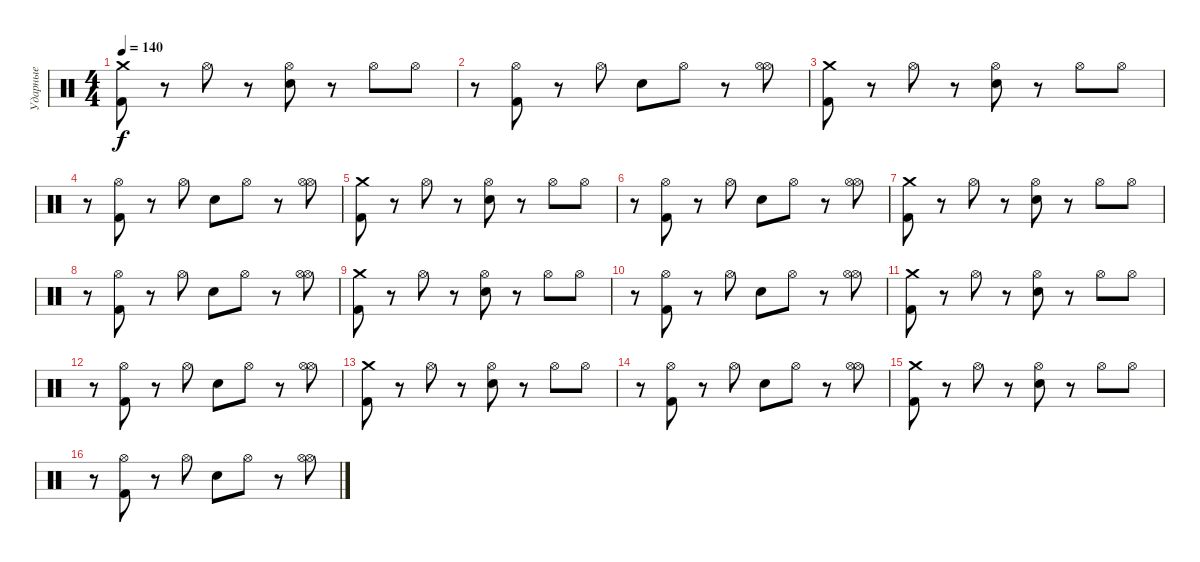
\track ("Ударные" "Ударные") {instrument percussion}
\staff {score}
\articulation defaults
\ts (4 4)
\tempo 140
\clef neutral
\ks c
("Crash medium (hit)" "Kick (hit) 2").8{dy f} r.8 "Hi-Hat (open)".8 r.8 ("Snare (hit) 2" "Hi-Hat (open)").8 r.8 "Hi-Hat (open)".8 "Hi-Hat (open)".8 |
r.8 ("Hi-Hat (open)" "Kick (hit) 2").8 r.8 "Hi-Hat (open)".8 "Snare (hit) 2".8 "Hi-Hat (open)".8 r.8 ("Hi-Hat (open)" "Hi-Hat (open)").8 |
("Crash medium (hit)" "Kick (hit) 2").8 r.8 "Hi-Hat (open)".8 r.8 ("Snare (hit) 2" "Hi-Hat (open)").8 r.8 "Hi-Hat (open)".8 "Hi-Hat (open)".8 |
r.8 ("Hi-Hat (open)" "Kick (hit) 2").8 r.8 "Hi-Hat (open)".8 "Snare (hit) 2".8 "Hi-Hat (open)".8 r.8 ("Hi-Hat (open)" "Hi-Hat (open)").8 |
("Crash medium (hit)" "Kick (hit) 2").8 r.8 "Hi-Hat (open)".8 r.8 ("Snare (hit) 2" "Hi-Hat (open)").8 r.8 "Hi-Hat (open)".8 "Hi-Hat (open)".8 |
r.8 ("Hi-Hat (open)" "Kick (hit) 2").8 r.8 "Hi-Hat (open)".8 "Snare (hit) 2".8 "Hi-Hat (open)".8 r.8 ("Hi-Hat (open)" "Hi-Hat (open)").8 |
("Crash medium (hit)" "Kick (hit) 2").8 r.8 "Hi-Hat (open)".8 r.8 ("Snare (hit) 2" "Hi-Hat (open)").8 r.8 "Hi-Hat (open)".8 "Hi-Hat (open)".8 |
r.8 ("Hi-Hat (open)" "Kick (hit) 2").8 r.8 "Hi-Hat (open)".8 "Snare (hit) 2".8 "Hi-Hat (open)".8 r.8 ("Hi-Hat (open)" "Hi-Hat (open)").8 |
("Crash medium (hit)" "Kick (hit) 2").8 r.8 "Hi-Hat (open)".8 r.8 ("Snare (hit) 2" "Hi-Hat (open)").8 r.8 "Hi-Hat (open)".8 "Hi-Hat (open)".8 |
r.8 ("Hi-Hat (open)" "Kick (hit) 2").8 r.8 "Hi-Hat (open)".8 "Snare (hit) 2".8 "Hi-Hat (open)".8 r.8 ("Hi-Hat (open)" "Hi-Hat (open)").8 |
("Crash medium (hit)" "Kick (hit) 2").8 r.8 "Hi-Hat (open)".8 r.8 ("Snare (hit) 2" "Hi-Hat (open)").8 r.8 "Hi-Hat (open)".8 "Hi-Hat (open)".8 |
r.8 ("Hi-Hat (open)" "Kick (hit) 2").8 r.8 "Hi-Hat (open)".8 "Snare (hit) 2".8 "Hi-Hat (open)".8 r.8 ("Hi-Hat (open)" "Hi-Hat (open)").8 |
("Crash medium (hit)" "Kick (hit) 2").8 r.8 "Hi-Hat (open)".8 r.8 ("Snare (hit) 2" "Hi-Hat (open)").8 r.8 "Hi-Hat (open)".8 "Hi-Hat (open)".8 |
r.8 ("Hi-Hat (open)" "Kick (hit) 2").8 r.8 "Hi-Hat (open)".8 "Snare (hit) 2".8 "Hi-Hat (open)".8 r.8 ("Hi-Hat (open)" "Hi-Hat (open)").8 |
("Crash medium (hit)" "Kick (hit) 2").8 r.8 "Hi-Hat (open)".8 r.8 ("Snare (hit) 2" "Hi-Hat (open)").8 r.8 "Hi-Hat (open)".8 "Hi-Hat (open)".8 |
r.8 ("Hi-Hat (open)" "Kick (hit) 2").8 r.8 "Hi-Hat (open)".8 "Snare (hit) 2".8 "Hi-Hat (open)".8 r.8 ("Hi-Hat (open)" "Hi-Hat (open)").8
